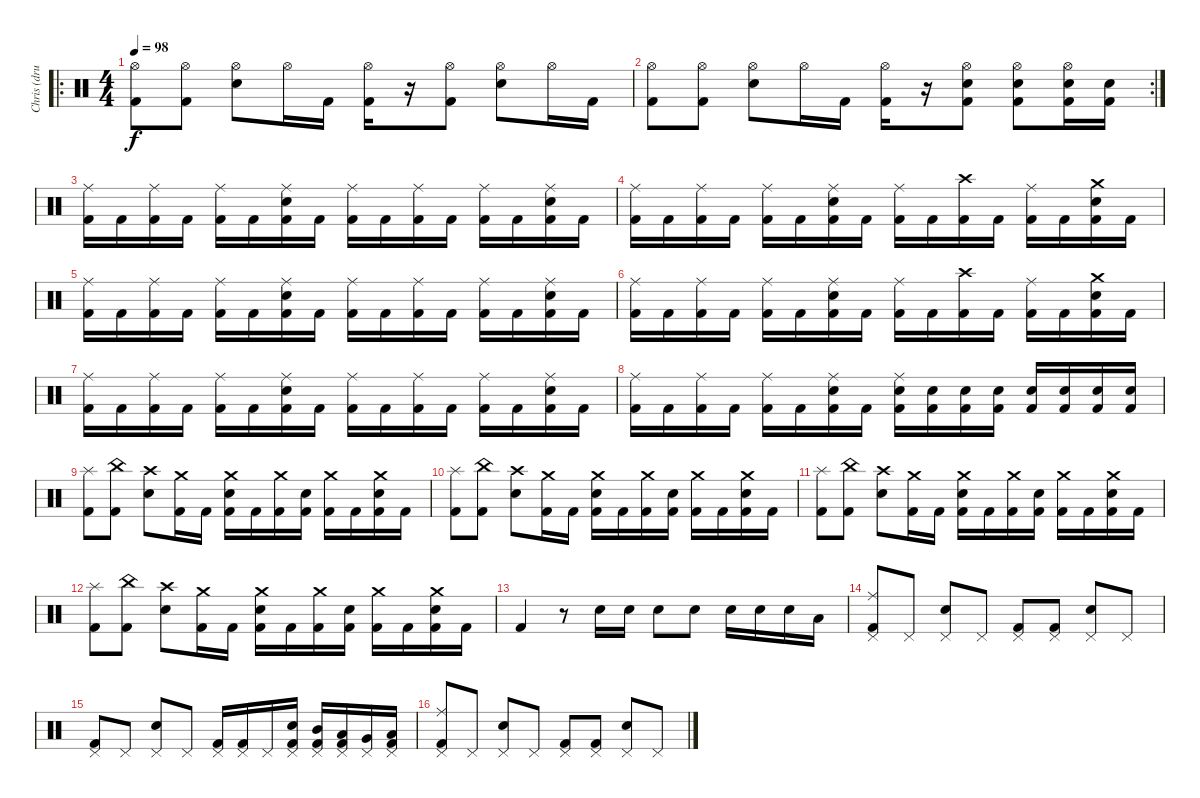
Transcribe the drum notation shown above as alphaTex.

\track ("Chris (drums)" "Chris (dru") {instrument percussion}
\staff {score}
\articulation defaults
\ro
\ts (4 4)
\tempo 98
\clef neutral
\ks c
("Hi-Hat (open)" "Kick (hit) 2").8{dy f} ("Hi-Hat (open)" "Kick (hit) 2").8 ("Hi-Hat (open)" "Electric Snare (hit)").8 "Hi-Hat (open)".16 "Kick (hit) 2".16 ("Hi-Hat (open)" "Kick (hit) 2").16 r.16 ("Hi-Hat (open)" "Kick (hit) 2").8 ("Hi-Hat (open)" "Electric Snare (hit)").8 "Hi-Hat (open)".16 "Kick (hit) 2".16 |
\rc 2
("Hi-Hat (open)" "Kick (hit) 2").8 ("Hi-Hat (open)" "Kick (hit) 2").8 ("Hi-Hat (open)" "Electric Snare (hit)").8 "Hi-Hat (open)".16 "Kick (hit) 2".16 ("Hi-Hat (open)" "Kick (hit) 2").16 r.16 ("Hi-Hat (open)" "Electric Snare (hit)" "Kick (hit) 2").8 ("Hi-Hat (open)" "Electric Snare (hit)" "Kick (hit) 2").8 ("Hi-Hat (open)" "Electric Snare (hit)" "Kick (hit) 2").16 ("Electric Snare (hit)" "Kick (hit) 2").16 |
("Ride (middle)" "Kick (hit) 2").16 "Kick (hit) 2".16 ("Ride (middle)" "Kick (hit) 2").16 "Kick (hit) 2".16 ("Ride (middle)" "Kick (hit) 2").16 "Kick (hit) 2".16 ("Ride (middle)" "Electric Snare (hit)" "Kick (hit) 2").16 "Kick (hit) 2".16 ("Ride (middle)" "Kick (hit) 2").16 "Kick (hit) 2".16 ("Ride (middle)" "Kick (hit) 2").16 "Kick (hit) 2".16 ("Ride (middle)" "Kick (hit) 2").16 "Kick (hit) 2".16 ("Ride (middle)" "Electric Snare (hit)" "Kick (hit) 2").16 "Kick (hit) 2".16 |
("Ride (middle)" "Kick (hit) 2").16 "Kick (hit) 2".16 ("Ride (middle)" "Kick (hit) 2").16 "Kick (hit) 2".16 ("Ride (middle)" "Kick (hit) 2").16 "Kick (hit) 2".16 ("Ride (middle)" "Electric Snare (hit)" "Kick (hit) 2").16 "Kick (hit) 2".16 ("Ride (middle)" "Kick (hit) 2").16 "Kick (hit) 2".16 ("Crash high (hit)" "Kick (hit) 2").16 "Kick (hit) 2".16 ("Ride (middle)" "Kick (hit) 2").16 "Kick (hit) 2".16 ("Crash medium (hit)" "Electric Snare (hit)" "Kick (hit) 2").16 "Kick (hit) 2".16 |
("Ride (middle)" "Kick (hit) 2").16 "Kick (hit) 2".16 ("Ride (middle)" "Kick (hit) 2").16 "Kick (hit) 2".16 ("Ride (middle)" "Kick (hit) 2").16 "Kick (hit) 2".16 ("Ride (middle)" "Electric Snare (hit)" "Kick (hit) 2").16 "Kick (hit) 2".16 ("Ride (middle)" "Kick (hit) 2").16 "Kick (hit) 2".16 ("Ride (middle)" "Kick (hit) 2").16 "Kick (hit) 2".16 ("Ride (middle)" "Kick (hit) 2").16 "Kick (hit) 2".16 ("Ride (middle)" "Electric Snare (hit)" "Kick (hit) 2").16 "Kick (hit) 2".16 |
("Ride (middle)" "Kick (hit) 2").16 "Kick (hit) 2".16 ("Ride (middle)" "Kick (hit) 2").16 "Kick (hit) 2".16 ("Ride (middle)" "Kick (hit) 2").16 "Kick (hit) 2".16 ("Ride (middle)" "Electric Snare (hit)" "Kick (hit) 2").16 "Kick (hit) 2".16 ("Ride (middle)" "Kick (hit) 2").16 "Kick (hit) 2".16 ("Crash high (hit)" "Kick (hit) 2").16 "Kick (hit) 2".16 ("Ride (middle)" "Kick (hit) 2").16 "Kick (hit) 2".16 ("Crash medium (hit)" "Electric Snare (hit)" "Kick (hit) 2").16 "Kick (hit) 2".16 |
("Ride (middle)" "Kick (hit) 2").16 "Kick (hit) 2".16 ("Ride (middle)" "Kick (hit) 2").16 "Kick (hit) 2".16 ("Ride (middle)" "Kick (hit) 2").16 "Kick (hit) 2".16 ("Ride (middle)" "Electric Snare (hit)" "Kick (hit) 2").16 "Kick (hit) 2".16 ("Ride (middle)" "Kick (hit) 2").16 "Kick (hit) 2".16 ("Ride (middle)" "Kick (hit) 2").16 "Kick (hit) 2".16 ("Ride (middle)" "Kick (hit) 2").16 "Kick (hit) 2".16 ("Ride (middle)" "Electric Snare (hit)" "Kick (hit) 2").16 "Kick (hit) 2".16 |
("Ride (middle)" "Kick (hit) 2").16 "Kick (hit) 2".16 ("Ride (middle)" "Kick (hit) 2").16 "Kick (hit) 2".16 ("Ride (middle)" "Kick (hit) 2").16 "Kick (hit) 2".16 ("Ride (middle)" "Electric Snare (hit)" "Kick (hit) 2").16 "Kick (hit) 2".16 ("Ride (middle)" "Electric Snare (hit)" "Kick (hit) 2").16 ("Electric Snare (hit)" "Kick (hit) 2").16 ("Electric Snare (hit)" "Kick (hit) 2").16 ("Electric Snare (hit)" "Kick (hit) 2").16 ("Electric Snare (hit)" "Kick (hit) 2").16 ("Electric Snare (hit)" "Kick (hit) 2").16 ("Electric Snare (hit)" "Kick (hit) 2").16 ("Electric Snare (hit)" "Kick (hit) 2").16 |
("Splash (hit)" "Kick (hit) 2").8 ("China (hit)" "Kick (hit) 2").8 ("Crash high (hit)" "Electric Snare (hit)").8 ("Crash medium (hit)" "Kick (hit) 2").16 "Kick (hit) 2".16 ("Crash medium (hit)" "Electric Snare (hit)" "Kick (hit) 2").16 "Kick (hit) 2".16 ("Crash medium (hit)" "Kick (hit) 2").16 ("Electric Snare (hit)" "Kick (hit) 2").16 ("Crash medium (hit)" "Kick (hit) 2").16 "Kick (hit) 2".16 ("Crash medium (hit)" "Electric Snare (hit)" "Kick (hit) 2").16 "Kick (hit) 2".16 |
("Splash (hit)" "Kick (hit) 2").8 ("China (hit)" "Kick (hit) 2").8 ("Crash high (hit)" "Electric Snare (hit)").8 ("Crash medium (hit)" "Kick (hit) 2").16 "Kick (hit) 2".16 ("Crash medium (hit)" "Electric Snare (hit)" "Kick (hit) 2").16 "Kick (hit) 2".16 ("Crash medium (hit)" "Kick (hit) 2").16 ("Electric Snare (hit)" "Kick (hit) 2").16 ("Crash medium (hit)" "Kick (hit) 2").16 "Kick (hit) 2".16 ("Crash medium (hit)" "Electric Snare (hit)" "Kick (hit) 2").16 "Kick (hit) 2".16 |
("Splash (hit)" "Kick (hit) 2").8 ("China (hit)" "Kick (hit) 2").8 ("Crash high (hit)" "Electric Snare (hit)").8 ("Crash medium (hit)" "Kick (hit) 2").16 "Kick (hit) 2".16 ("Crash medium (hit)" "Electric Snare (hit)" "Kick (hit) 2").16 "Kick (hit) 2".16 ("Crash medium (hit)" "Kick (hit) 2").16 ("Electric Snare (hit)" "Kick (hit) 2").16 ("Crash medium (hit)" "Kick (hit) 2").16 "Kick (hit) 2".16 ("Crash medium (hit)" "Electric Snare (hit)" "Kick (hit) 2").16 "Kick (hit) 2".16 |
("Splash (hit)" "Kick (hit) 2").8 ("China (hit)" "Kick (hit) 2").8 ("Crash high (hit)" "Electric Snare (hit)").8 ("Crash medium (hit)" "Kick (hit) 2").16 "Kick (hit) 2".16 ("Crash medium (hit)" "Electric Snare (hit)" "Kick (hit) 2").16 "Kick (hit) 2".16 ("Crash medium (hit)" "Kick (hit) 2").16 ("Electric Snare (hit)" "Kick (hit) 2").16 ("Crash medium (hit)" "Kick (hit) 2").16 "Kick (hit) 2".16 ("Crash medium (hit)" "Electric Snare (hit)" "Kick (hit) 2").16 "Kick (hit) 2".16 |
"Kick (hit) 2".4 r.8 "Electric Snare (hit)".16 "Electric Snare (hit)".16 "Electric Snare (hit)".8 "Electric Snare (hit)".8 "Electric Snare (hit)".16 "Electric Snare (hit)".16 "Electric Snare (hit)".16 "Low Floor Tom (hit)".16 |
("Ride (middle)" "Pedal Hi-Hat (hit)" "Kick (hit) 2").8 "Pedal Hi-Hat (hit)".8 ("Pedal Hi-Hat (hit)" "Electric Snare (hit)").8 "Pedal Hi-Hat (hit)".8 ("Pedal Hi-Hat (hit)" "Kick (hit) 2").8 ("Pedal Hi-Hat (hit)" "Kick (hit) 2").8 ("Pedal Hi-Hat (hit)" "Electric Snare (hit)").8 "Pedal Hi-Hat (hit)".8 |
("Pedal Hi-Hat (hit)" "Kick (hit) 2").8 "Pedal Hi-Hat (hit)".8 ("Pedal Hi-Hat (hit)" "Electric Snare (hit)").8 "Pedal Hi-Hat (hit)".8 ("Pedal Hi-Hat (hit)" "Kick (hit) 2").16 ("Pedal Hi-Hat (hit)" "Kick (hit) 2").16 "Pedal Hi-Hat (hit)".16 ("Pedal Hi-Hat (hit)" "Electric Snare (hit)" "Kick (hit) 2").16 ("Pedal Hi-Hat (hit)" "Mid Tom (hit)" "Kick (hit) 2").16 ("Pedal Hi-Hat (hit)" "Low Tom (hit)" "Kick (hit) 2").16 ("Pedal Hi-Hat (hit)" "Very Low Tom (hit)").16 ("Pedal Hi-Hat (hit)" "Low Floor Tom (hit)" "Kick (hit) 2").16 |
("Ride (middle)" "Pedal Hi-Hat (hit)" "Kick (hit) 2").8 "Pedal Hi-Hat (hit)".8 ("Pedal Hi-Hat (hit)" "Electric Snare (hit)").8 "Pedal Hi-Hat (hit)".8 ("Pedal Hi-Hat (hit)" "Kick (hit) 2").8 ("Pedal Hi-Hat (hit)" "Kick (hit) 2").8 ("Pedal Hi-Hat (hit)" "Electric Snare (hit)").8 "Pedal Hi-Hat (hit)".8
